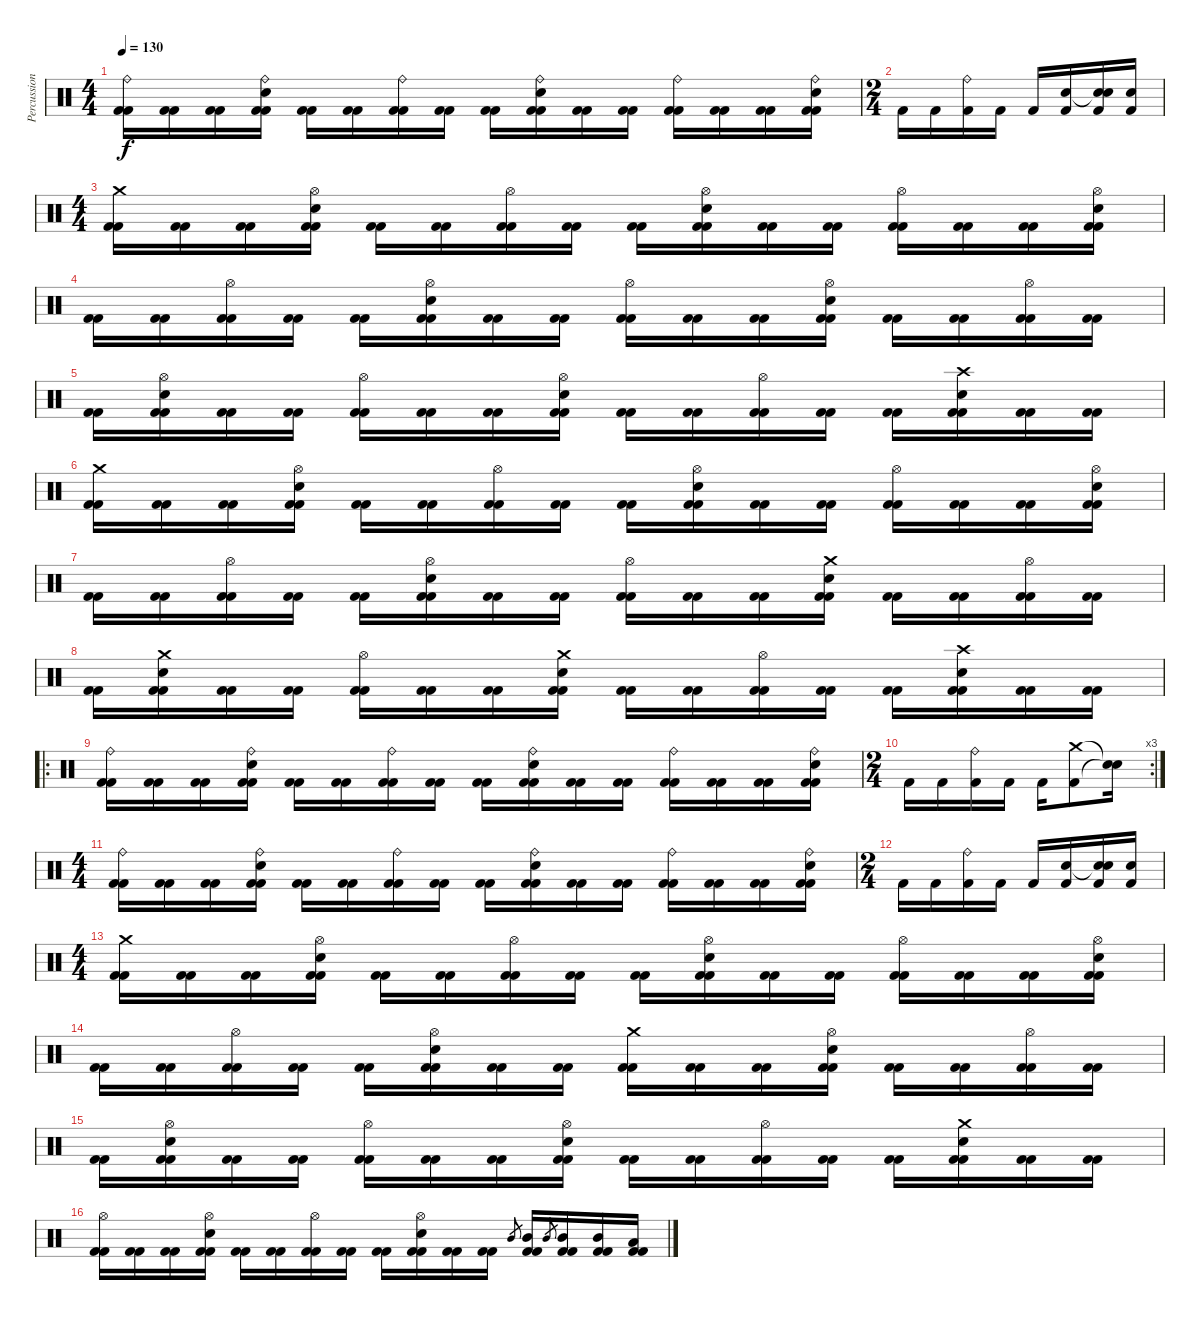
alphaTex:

\track ("Percussion" "Percussion") {instrument percussion}
\staff {score}
\articulation defaults
\ts (4 4)
\tempo 130
\clef neutral
\ks c
("Ride (bell)" "Kick (hit) 2" "Kick (hit) 2").16{dy f} ("Kick (hit) 2" "Kick (hit) 2").16 ("Kick (hit) 2" "Kick (hit) 2").16 ("Ride (bell)" "Electric Snare (hit)" "Kick (hit) 2" "Kick (hit) 2").16 ("Kick (hit) 2" "Kick (hit) 2").16 ("Kick (hit) 2" "Kick (hit) 2").16 ("Ride (bell)" "Kick (hit) 2" "Kick (hit) 2").16 ("Kick (hit) 2" "Kick (hit) 2").16 ("Kick (hit) 2" "Kick (hit) 2").16 ("Ride (bell)" "Electric Snare (hit)" "Kick (hit) 2" "Kick (hit) 2").16 ("Kick (hit) 2" "Kick (hit) 2").16 ("Kick (hit) 2" "Kick (hit) 2").16 ("Ride (bell)" "Kick (hit) 2" "Kick (hit) 2").16 ("Kick (hit) 2" "Kick (hit) 2").16 ("Kick (hit) 2" "Kick (hit) 2").16 ("Ride (bell)" "Electric Snare (hit)" "Kick (hit) 2" "Kick (hit) 2").16 |
\ts (2 4)
"Kick (hit) 2".16 "Kick (hit) 2".16 ("Ride (bell)" "Kick (hit) 2").16 "Kick (hit) 2".16 "Kick (hit) 2".16 ("Electric Snare (hit)" "Kick (hit) 2").16 ("Snare (hit)"{t} "Electric Snare (hit)" "Kick (hit) 2").16 ("Electric Snare (hit)" "Kick (hit) 2").16 |
\ts (4 4)
("Crash medium (hit)" "Kick (hit) 2" "Kick (hit) 2").16 ("Kick (hit) 2" "Kick (hit) 2").16 ("Kick (hit) 2" "Kick (hit) 2").16 ("Hi-Hat (open)" "Electric Snare (hit)" "Kick (hit) 2" "Kick (hit) 2").16 ("Kick (hit) 2" "Kick (hit) 2").16 ("Kick (hit) 2" "Kick (hit) 2").16 ("Hi-Hat (open)" "Kick (hit) 2" "Kick (hit) 2").16 ("Kick (hit) 2" "Kick (hit) 2").16 ("Kick (hit) 2" "Kick (hit) 2").16 ("Hi-Hat (open)" "Electric Snare (hit)" "Kick (hit) 2" "Kick (hit) 2").16 ("Kick (hit) 2" "Kick (hit) 2").16 ("Kick (hit) 2" "Kick (hit) 2").16 ("Hi-Hat (open)" "Kick (hit) 2" "Kick (hit) 2").16 ("Kick (hit) 2" "Kick (hit) 2").16 ("Kick (hit) 2" "Kick (hit) 2").16 ("Hi-Hat (open)" "Electric Snare (hit)" "Kick (hit) 2" "Kick (hit) 2").16 |
("Kick (hit) 2" "Kick (hit) 2").16 ("Kick (hit) 2" "Kick (hit) 2").16 ("Hi-Hat (open)" "Kick (hit) 2" "Kick (hit) 2").16 ("Kick (hit) 2" "Kick (hit) 2").16 ("Kick (hit) 2" "Kick (hit) 2").16 ("Hi-Hat (open)" "Electric Snare (hit)" "Kick (hit) 2" "Kick (hit) 2").16 ("Kick (hit) 2" "Kick (hit) 2").16 ("Kick (hit) 2" "Kick (hit) 2").16 ("Hi-Hat (open)" "Kick (hit) 2" "Kick (hit) 2").16 ("Kick (hit) 2" "Kick (hit) 2").16 ("Kick (hit) 2" "Kick (hit) 2").16 ("Hi-Hat (open)" "Electric Snare (hit)" "Kick (hit) 2" "Kick (hit) 2").16 ("Kick (hit) 2" "Kick (hit) 2").16 ("Kick (hit) 2" "Kick (hit) 2").16 ("Hi-Hat (open)" "Kick (hit) 2" "Kick (hit) 2").16 ("Kick (hit) 2" "Kick (hit) 2").16 |
("Kick (hit) 2" "Kick (hit) 2").16 ("Hi-Hat (open)" "Electric Snare (hit)" "Kick (hit) 2" "Kick (hit) 2").16 ("Kick (hit) 2" "Kick (hit) 2").16 ("Kick (hit) 2" "Kick (hit) 2").16 ("Hi-Hat (open)" "Kick (hit) 2" "Kick (hit) 2").16 ("Kick (hit) 2" "Kick (hit) 2").16 ("Kick (hit) 2" "Kick (hit) 2").16 ("Hi-Hat (open)" "Electric Snare (hit)" "Kick (hit) 2" "Kick (hit) 2").16 ("Kick (hit) 2" "Kick (hit) 2").16 ("Kick (hit) 2" "Kick (hit) 2").16 ("Hi-Hat (open)" "Kick (hit) 2" "Kick (hit) 2").16 ("Kick (hit) 2" "Kick (hit) 2").16 ("Kick (hit) 2" "Kick (hit) 2").16 ("Crash high (hit)" "Electric Snare (hit)" "Kick (hit) 2" "Kick (hit) 2").16 ("Kick (hit) 2" "Kick (hit) 2").16 ("Kick (hit) 2" "Kick (hit) 2").16 |
("Crash medium (hit)" "Kick (hit) 2" "Kick (hit) 2").16 ("Kick (hit) 2" "Kick (hit) 2").16 ("Kick (hit) 2" "Kick (hit) 2").16 ("Hi-Hat (open)" "Electric Snare (hit)" "Kick (hit) 2" "Kick (hit) 2").16 ("Kick (hit) 2" "Kick (hit) 2").16 ("Kick (hit) 2" "Kick (hit) 2").16 ("Hi-Hat (open)" "Kick (hit) 2" "Kick (hit) 2").16 ("Kick (hit) 2" "Kick (hit) 2").16 ("Kick (hit) 2" "Kick (hit) 2").16 ("Hi-Hat (open)" "Electric Snare (hit)" "Kick (hit) 2" "Kick (hit) 2").16 ("Kick (hit) 2" "Kick (hit) 2").16 ("Kick (hit) 2" "Kick (hit) 2").16 ("Hi-Hat (open)" "Kick (hit) 2" "Kick (hit) 2").16 ("Kick (hit) 2" "Kick (hit) 2").16 ("Kick (hit) 2" "Kick (hit) 2").16 ("Hi-Hat (open)" "Electric Snare (hit)" "Kick (hit) 2" "Kick (hit) 2").16 |
("Kick (hit) 2" "Kick (hit) 2").16 ("Kick (hit) 2" "Kick (hit) 2").16 ("Hi-Hat (open)" "Kick (hit) 2" "Kick (hit) 2").16 ("Kick (hit) 2" "Kick (hit) 2").16 ("Kick (hit) 2" "Kick (hit) 2").16 ("Hi-Hat (open)" "Electric Snare (hit)" "Kick (hit) 2" "Kick (hit) 2").16 ("Kick (hit) 2" "Kick (hit) 2").16 ("Kick (hit) 2" "Kick (hit) 2").16 ("Hi-Hat (open)" "Kick (hit) 2" "Kick (hit) 2").16 ("Kick (hit) 2" "Kick (hit) 2").16 ("Kick (hit) 2" "Kick (hit) 2").16 ("Crash medium (hit)" "Electric Snare (hit)" "Kick (hit) 2" "Kick (hit) 2").16 ("Kick (hit) 2" "Kick (hit) 2").16 ("Kick (hit) 2" "Kick (hit) 2").16 ("Hi-Hat (open)" "Kick (hit) 2" "Kick (hit) 2").16 ("Kick (hit) 2" "Kick (hit) 2").16 |
("Kick (hit) 2" "Kick (hit) 2").16 ("Crash medium (hit)" "Electric Snare (hit)" "Kick (hit) 2" "Kick (hit) 2").16 ("Kick (hit) 2" "Kick (hit) 2").16 ("Kick (hit) 2" "Kick (hit) 2").16 ("Hi-Hat (open)" "Kick (hit) 2" "Kick (hit) 2").16 ("Kick (hit) 2" "Kick (hit) 2").16 ("Kick (hit) 2" "Kick (hit) 2").16 ("Crash medium (hit)" "Electric Snare (hit)" "Kick (hit) 2" "Kick (hit) 2").16 ("Kick (hit) 2" "Kick (hit) 2").16 ("Kick (hit) 2" "Kick (hit) 2").16 ("Hi-Hat (open)" "Kick (hit) 2" "Kick (hit) 2").16 ("Kick (hit) 2" "Kick (hit) 2").16 ("Kick (hit) 2" "Kick (hit) 2").16 ("Crash high (hit)" "Electric Snare (hit)" "Kick (hit) 2" "Kick (hit) 2").16 ("Kick (hit) 2" "Kick (hit) 2").16 ("Kick (hit) 2" "Kick (hit) 2").16 |
\ro
("Ride (bell)" "Kick (hit) 2" "Kick (hit) 2").16 ("Kick (hit) 2" "Kick (hit) 2").16 ("Kick (hit) 2" "Kick (hit) 2").16 ("Ride (bell)" "Electric Snare (hit)" "Kick (hit) 2" "Kick (hit) 2").16 ("Kick (hit) 2" "Kick (hit) 2").16 ("Kick (hit) 2" "Kick (hit) 2").16 ("Ride (bell)" "Kick (hit) 2" "Kick (hit) 2").16 ("Kick (hit) 2" "Kick (hit) 2").16 ("Kick (hit) 2" "Kick (hit) 2").16 ("Ride (bell)" "Electric Snare (hit)" "Kick (hit) 2" "Kick (hit) 2").16 ("Kick (hit) 2" "Kick (hit) 2").16 ("Kick (hit) 2" "Kick (hit) 2").16 ("Ride (bell)" "Kick (hit) 2" "Kick (hit) 2").16 ("Kick (hit) 2" "Kick (hit) 2").16 ("Kick (hit) 2" "Kick (hit) 2").16 ("Ride (bell)" "Electric Snare (hit)" "Kick (hit) 2" "Kick (hit) 2").16 |
\rc 3
\ts (2 4)
"Kick (hit) 2".16 "Kick (hit) 2".16 ("Ride (bell)" "Kick (hit) 2").16 "Kick (hit) 2".16 "Kick (hit) 2".16 ("Crash medium (hit)" "Kick (hit) 2").8 ("Snare (hit)"{t} "Snare (hit)"{t}).16 |
\ts (4 4)
("Ride (bell)" "Kick (hit) 2" "Kick (hit) 2").16 ("Kick (hit) 2" "Kick (hit) 2").16 ("Kick (hit) 2" "Kick (hit) 2").16 ("Ride (bell)" "Electric Snare (hit)" "Kick (hit) 2" "Kick (hit) 2").16 ("Kick (hit) 2" "Kick (hit) 2").16 ("Kick (hit) 2" "Kick (hit) 2").16 ("Ride (bell)" "Kick (hit) 2" "Kick (hit) 2").16 ("Kick (hit) 2" "Kick (hit) 2").16 ("Kick (hit) 2" "Kick (hit) 2").16 ("Ride (bell)" "Electric Snare (hit)" "Kick (hit) 2" "Kick (hit) 2").16 ("Kick (hit) 2" "Kick (hit) 2").16 ("Kick (hit) 2" "Kick (hit) 2").16 ("Ride (bell)" "Kick (hit) 2" "Kick (hit) 2").16 ("Kick (hit) 2" "Kick (hit) 2").16 ("Kick (hit) 2" "Kick (hit) 2").16 ("Ride (bell)" "Electric Snare (hit)" "Kick (hit) 2" "Kick (hit) 2").16 |
\ts (2 4)
"Kick (hit) 2".16 "Kick (hit) 2".16 ("Ride (bell)" "Kick (hit) 2").16 "Kick (hit) 2".16 "Kick (hit) 2".16 ("Electric Snare (hit)" "Kick (hit) 2").16 ("Snare (hit)"{t} "Electric Snare (hit)" "Kick (hit) 2").16 ("Electric Snare (hit)" "Kick (hit) 2").16 |
\ts (4 4)
("Crash medium (hit)" "Kick (hit) 2" "Kick (hit) 2").16 ("Kick (hit) 2" "Kick (hit) 2").16 ("Kick (hit) 2" "Kick (hit) 2").16 ("Hi-Hat (open)" "Electric Snare (hit)" "Kick (hit) 2" "Kick (hit) 2").16 ("Kick (hit) 2" "Kick (hit) 2").16 ("Kick (hit) 2" "Kick (hit) 2").16 ("Hi-Hat (open)" "Kick (hit) 2" "Kick (hit) 2").16 ("Kick (hit) 2" "Kick (hit) 2").16 ("Kick (hit) 2" "Kick (hit) 2").16 ("Hi-Hat (open)" "Electric Snare (hit)" "Kick (hit) 2" "Kick (hit) 2").16 ("Kick (hit) 2" "Kick (hit) 2").16 ("Kick (hit) 2" "Kick (hit) 2").16 ("Hi-Hat (open)" "Kick (hit) 2" "Kick (hit) 2").16 ("Kick (hit) 2" "Kick (hit) 2").16 ("Kick (hit) 2" "Kick (hit) 2").16 ("Hi-Hat (open)" "Electric Snare (hit)" "Kick (hit) 2" "Kick (hit) 2").16 |
("Kick (hit) 2" "Kick (hit) 2").16 ("Kick (hit) 2" "Kick (hit) 2").16 ("Hi-Hat (open)" "Kick (hit) 2" "Kick (hit) 2").16 ("Kick (hit) 2" "Kick (hit) 2").16 ("Kick (hit) 2" "Kick (hit) 2").16 ("Hi-Hat (open)" "Electric Snare (hit)" "Kick (hit) 2" "Kick (hit) 2").16 ("Kick (hit) 2" "Kick (hit) 2").16 ("Kick (hit) 2" "Kick (hit) 2").16 ("Crash medium (hit)" "Kick (hit) 2" "Kick (hit) 2").16 ("Kick (hit) 2" "Kick (hit) 2").16 ("Kick (hit) 2" "Kick (hit) 2").16 ("Hi-Hat (open)" "Electric Snare (hit)" "Kick (hit) 2" "Kick (hit) 2").16 ("Kick (hit) 2" "Kick (hit) 2").16 ("Kick (hit) 2" "Kick (hit) 2").16 ("Hi-Hat (open)" "Kick (hit) 2" "Kick (hit) 2").16 ("Kick (hit) 2" "Kick (hit) 2").16 |
("Kick (hit) 2" "Kick (hit) 2").16 ("Hi-Hat (open)" "Electric Snare (hit)" "Kick (hit) 2" "Kick (hit) 2").16 ("Kick (hit) 2" "Kick (hit) 2").16 ("Kick (hit) 2" "Kick (hit) 2").16 ("Hi-Hat (open)" "Kick (hit) 2" "Kick (hit) 2").16 ("Kick (hit) 2" "Kick (hit) 2").16 ("Kick (hit) 2" "Kick (hit) 2").16 ("Hi-Hat (open)" "Electric Snare (hit)" "Kick (hit) 2" "Kick (hit) 2").16 ("Kick (hit) 2" "Kick (hit) 2").16 ("Kick (hit) 2" "Kick (hit) 2").16 ("Hi-Hat (open)" "Kick (hit) 2" "Kick (hit) 2").16 ("Kick (hit) 2" "Kick (hit) 2").16 ("Kick (hit) 2" "Kick (hit) 2").16 ("Crash medium (hit)" "Electric Snare (hit)" "Kick (hit) 2" "Kick (hit) 2").16 ("Kick (hit) 2" "Kick (hit) 2").16 ("Kick (hit) 2" "Kick (hit) 2").16 |
("Hi-Hat (open)" "Kick (hit) 2" "Kick (hit) 2").16 ("Kick (hit) 2" "Kick (hit) 2").16 ("Kick (hit) 2" "Kick (hit) 2").16 ("Hi-Hat (open)" "Electric Snare (hit)" "Kick (hit) 2" "Kick (hit) 2").16 ("Kick (hit) 2" "Kick (hit) 2").16 ("Kick (hit) 2" "Kick (hit) 2").16 ("Hi-Hat (open)" "Kick (hit) 2" "Kick (hit) 2").16 ("Kick (hit) 2" "Kick (hit) 2").16 ("Kick (hit) 2" "Kick (hit) 2").16 ("Hi-Hat (open)" "Electric Snare (hit)" "Kick (hit) 2" "Kick (hit) 2").16 ("Kick (hit) 2" "Kick (hit) 2").16 ("Kick (hit) 2" "Kick (hit) 2").16 "Mid Tom (hit)".8{gr} ("Mid Tom (hit)" "Kick (hit) 2" "Kick (hit) 2").16 "Mid Tom (hit)".8{gr} ("Mid Tom (hit)" "Kick (hit) 2" "Kick (hit) 2").16 ("Mid Tom (hit)" "Kick (hit) 2" "Kick (hit) 2").16 ("Low Tom (hit)" "Kick (hit) 2" "Kick (hit) 2").16
